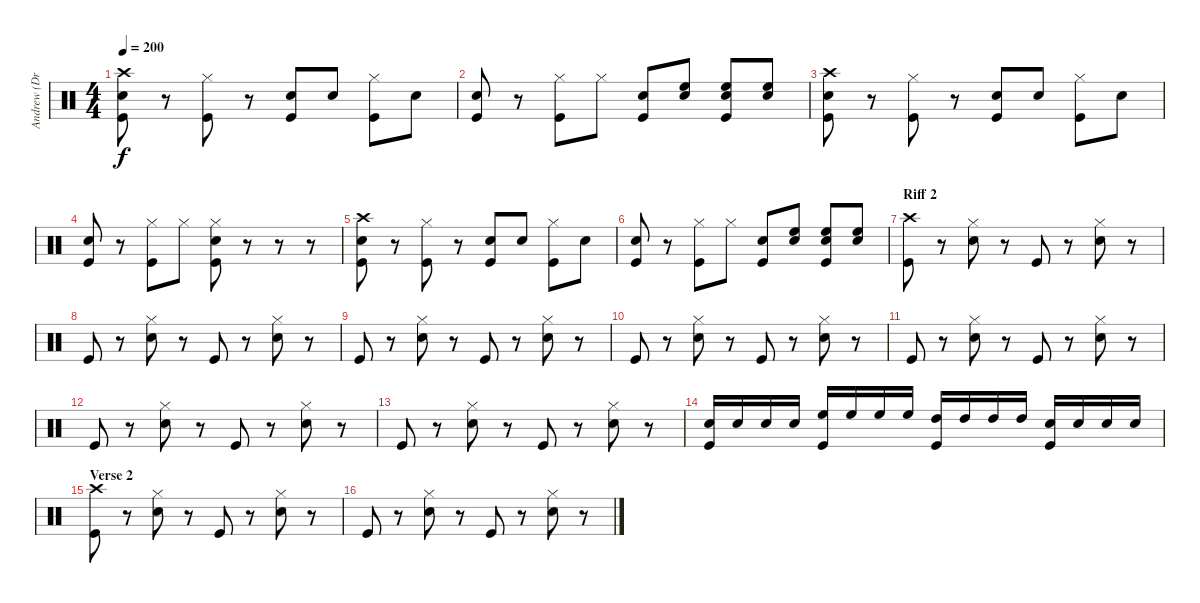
\track ("Andrew (Drums)" "Andrew (Dr") {instrument percussion}
\staff {score}
\articulation defaults
\ts (4 4)
\tempo 200
\clef neutral
\ks c
("Kick (hit)" "Snare (hit) 2" "Crash high (hit)").8{dy f} r.8 ("Kick (hit)" "Hi-Hat (closed)").8 r.8 ("Kick (hit)" "Snare (hit) 2").8 "Snare (hit) 2".8 ("Kick (hit)" "Hi-Hat (closed)").8 "Snare (hit) 2".8 |
("Kick (hit)" "Snare (hit) 2").8 r.8 ("Kick (hit)" "Hi-Hat (closed)").8 "Hi-Hat (closed)".8 ("Kick (hit)" "Snare (hit) 2").8 ("Snare (hit) 2" "High Floor Tom (hit)").8 ("Kick (hit)" "Snare (hit) 2" "High Floor Tom (hit)").8 ("Snare (hit) 2" "High Floor Tom (hit)").8 |
("Kick (hit)" "Snare (hit) 2" "Crash high (hit)").8 r.8 ("Kick (hit)" "Hi-Hat (closed)").8 r.8 ("Kick (hit)" "Snare (hit) 2").8 "Snare (hit) 2".8 ("Kick (hit)" "Hi-Hat (closed)").8 "Snare (hit) 2".8 |
("Kick (hit)" "Snare (hit) 2").8 r.8 ("Kick (hit)" "Hi-Hat (closed)").8 "Hi-Hat (closed)".8 ("Kick (hit)" "Snare (hit) 2" "Hi-Hat (closed)").8 r.8 r.8 r.8 |
("Kick (hit)" "Snare (hit) 2" "Crash high (hit)").8 r.8 ("Kick (hit)" "Hi-Hat (closed)").8 r.8 ("Kick (hit)" "Snare (hit) 2").8 "Snare (hit) 2".8 ("Kick (hit)" "Hi-Hat (closed)").8 "Snare (hit) 2".8 |
("Kick (hit)" "Snare (hit) 2").8 r.8 ("Kick (hit)" "Hi-Hat (closed)").8 "Hi-Hat (closed)".8 ("Kick (hit)" "Snare (hit) 2").8 ("Snare (hit) 2" "High Floor Tom (hit)").8 ("Kick (hit)" "Snare (hit) 2" "High Floor Tom (hit)").8 ("Snare (hit) 2" "High Floor Tom (hit)").8 |
\section ("" "Riff 2")
("Kick (hit)" "Crash high (hit)").8 r.8 ("Snare (hit) 2" "Hi-Hat (closed)").8 r.8 "Kick (hit)".8 r.8 ("Snare (hit) 2" "Hi-Hat (closed)").8 r.8 |
"Kick (hit)".8 r.8 ("Snare (hit) 2" "Hi-Hat (closed)").8 r.8 "Kick (hit)".8 r.8 ("Snare (hit) 2" "Hi-Hat (closed)").8 r.8 |
"Kick (hit)".8 r.8 ("Snare (hit) 2" "Hi-Hat (closed)").8 r.8 "Kick (hit)".8 r.8 ("Snare (hit) 2" "Hi-Hat (closed)").8 r.8 |
"Kick (hit)".8 r.8 ("Snare (hit) 2" "Hi-Hat (closed)").8 r.8 "Kick (hit)".8 r.8 ("Snare (hit) 2" "Hi-Hat (closed)").8 r.8 |
"Kick (hit)".8 r.8 ("Snare (hit) 2" "Hi-Hat (closed)").8 r.8 "Kick (hit)".8 r.8 ("Snare (hit) 2" "Hi-Hat (closed)").8 r.8 |
"Kick (hit)".8 r.8 ("Snare (hit) 2" "Hi-Hat (closed)").8 r.8 "Kick (hit)".8 r.8 ("Snare (hit) 2" "Hi-Hat (closed)").8 r.8 |
"Kick (hit)".8 r.8 ("Snare (hit) 2" "Hi-Hat (closed)").8 r.8 "Kick (hit)".8 r.8 ("Snare (hit) 2" "Hi-Hat (closed)").8 r.8 |
("Kick (hit)" "Snare (hit) 2").16 "Snare (hit) 2".16 "Snare (hit) 2".16 "Snare (hit) 2".16 ("Kick (hit)" "High Floor Tom (hit)").16 "High Floor Tom (hit)".16 "High Floor Tom (hit)".16 "High Floor Tom (hit)".16 ("Kick (hit)" "High Tom (hit)").16 "High Tom (hit)".16 "High Tom (hit)".16 "High Tom (hit)".16 ("Kick (hit)" "Snare (hit) 2").16 "Snare (hit) 2".16 "Snare (hit) 2".16 "Snare (hit) 2".16 |
\section ("" "Verse 2")
("Kick (hit)" "Crash high (hit)").8 r.8 ("Snare (hit) 2" "Hi-Hat (closed)").8 r.8 "Kick (hit)".8 r.8 ("Snare (hit) 2" "Hi-Hat (closed)").8 r.8 |
"Kick (hit)".8 r.8 ("Snare (hit) 2" "Hi-Hat (closed)").8 r.8 "Kick (hit)".8 r.8 ("Snare (hit) 2" "Hi-Hat (closed)").8 r.8
